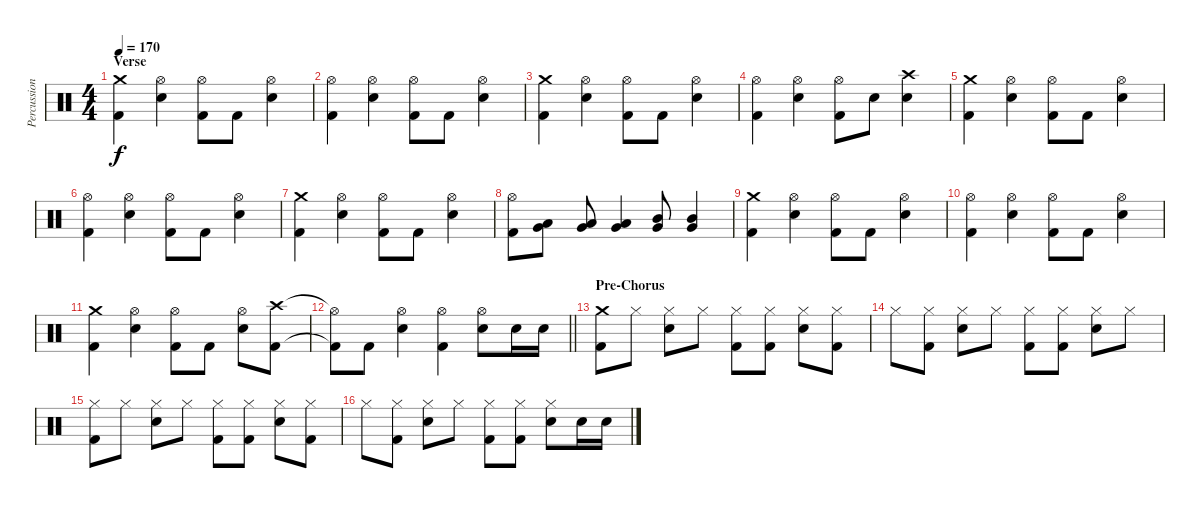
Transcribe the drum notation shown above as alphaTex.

\track ("Percussions" "Percussion") {instrument percussion}
\staff {score}
\articulation defaults
\ts (4 4)
\section ("" "Verse")
\tempo 170
\clef neutral
\ks c
("Crash medium (hit)" "Kick (hit) 2").4{dy f} ("Hi-Hat (open)" "Electric Snare (hit)").4 ("Hi-Hat (open)" "Kick (hit) 2").8 "Kick (hit) 2".8 ("Hi-Hat (open)" "Electric Snare (hit)").4 |
("Hi-Hat (open)" "Kick (hit) 2").4 ("Hi-Hat (open)" "Electric Snare (hit)").4 ("Hi-Hat (open)" "Kick (hit) 2").8 "Kick (hit) 2".8 ("Hi-Hat (open)" "Electric Snare (hit)").4 |
("Crash medium (hit)" "Kick (hit) 2").4 ("Hi-Hat (open)" "Electric Snare (hit)").4 ("Hi-Hat (open)" "Kick (hit) 2").8 "Kick (hit) 2".8 ("Hi-Hat (open)" "Electric Snare (hit)").4 |
("Hi-Hat (open)" "Kick (hit) 2").4 ("Hi-Hat (open)" "Electric Snare (hit)").4 ("Hi-Hat (open)" "Kick (hit) 2").8 "Electric Snare (hit)".8 ("Crash high (hit)" "Electric Snare (hit)").4 |
("Crash medium (hit)" "Kick (hit) 2").4 ("Hi-Hat (open)" "Electric Snare (hit)").4 ("Hi-Hat (open)" "Kick (hit) 2").8 "Kick (hit) 2".8 ("Hi-Hat (open)" "Electric Snare (hit)").4 |
("Hi-Hat (open)" "Kick (hit) 2").4 ("Hi-Hat (open)" "Electric Snare (hit)").4 ("Hi-Hat (open)" "Kick (hit) 2").8 "Kick (hit) 2".8 ("Hi-Hat (open)" "Electric Snare (hit)").4 |
("Crash medium (hit)" "Kick (hit) 2").4 ("Hi-Hat (open)" "Electric Snare (hit)").4 ("Hi-Hat (open)" "Kick (hit) 2").8 "Kick (hit) 2".8 ("Hi-Hat (open)" "Electric Snare (hit)").4 |
("Hi-Hat (open)" "Kick (hit) 2").8 ("Low Tom (hit)" "Very Low Tom (hit)").8 ("Low Tom (hit)" "Very Low Tom (hit)").8 ("Low Tom (hit)" "Very Low Tom (hit)").4 ("Mid Tom (hit)" "Very Low Tom (hit)").8 ("Mid Tom (hit)" "Very Low Tom (hit)").4 |
("Crash medium (hit)" "Kick (hit) 2").4 ("Hi-Hat (open)" "Electric Snare (hit)").4 ("Hi-Hat (open)" "Kick (hit) 2").8 "Kick (hit) 2".8 ("Hi-Hat (open)" "Electric Snare (hit)").4 |
("Hi-Hat (open)" "Kick (hit) 2").4 ("Hi-Hat (open)" "Electric Snare (hit)").4 ("Hi-Hat (open)" "Kick (hit) 2").8 "Kick (hit) 2".8 ("Hi-Hat (open)" "Electric Snare (hit)").4 |
("Crash medium (hit)" "Kick (hit) 2").4 ("Hi-Hat (open)" "Electric Snare (hit)").4 ("Hi-Hat (open)" "Kick (hit) 2").8 "Kick (hit) 2".8 ("Hi-Hat (open)" "Electric Snare (hit)").8 ("Crash high (hit)" "Kick (hit) 2").8 |
\barLineRight lightlight
("Hi-Hat (open)"{t} "Kick (hit) 2"{t}).8 "Kick (hit) 2".8 ("Hi-Hat (open)" "Electric Snare (hit)").4 ("Hi-Hat (open)" "Kick (hit) 2").4 ("Hi-Hat (open)" "Electric Snare (hit)").8 "Electric Snare (hit)".16 "Electric Snare (hit)".16 |
\section ("" "Pre-Chorus")
("Crash medium (hit)" "Kick (hit) 2").8 "Hi-Hat (closed)".8 ("Hi-Hat (closed)" "Electric Snare (hit)").8 "Hi-Hat (closed)".8 ("Hi-Hat (closed)" "Kick (hit) 2").8 ("Hi-Hat (closed)" "Kick (hit) 2").8 ("Hi-Hat (closed)" "Electric Snare (hit)").8 ("Hi-Hat (closed)" "Kick (hit) 2").8 |
"Hi-Hat (closed)".8 ("Hi-Hat (closed)" "Kick (hit) 2").8 ("Hi-Hat (closed)" "Electric Snare (hit)").8 "Hi-Hat (closed)".8 ("Hi-Hat (closed)" "Kick (hit) 2").8 ("Hi-Hat (closed)" "Kick (hit) 2").8 ("Hi-Hat (closed)" "Electric Snare (hit)").8 "Hi-Hat (closed)".8 |
("Hi-Hat (closed)" "Kick (hit) 2").8 "Hi-Hat (closed)".8 ("Hi-Hat (closed)" "Electric Snare (hit)").8 "Hi-Hat (closed)".8 ("Hi-Hat (closed)" "Kick (hit) 2").8 ("Hi-Hat (closed)" "Kick (hit) 2").8 ("Hi-Hat (closed)" "Electric Snare (hit)").8 ("Hi-Hat (closed)" "Kick (hit) 2").8 |
"Hi-Hat (closed)".8 ("Hi-Hat (closed)" "Kick (hit) 2").8 ("Hi-Hat (closed)" "Electric Snare (hit)").8 "Hi-Hat (closed)".8 ("Hi-Hat (closed)" "Kick (hit) 2").8 ("Hi-Hat (closed)" "Kick (hit) 2").8 ("Hi-Hat (closed)" "Electric Snare (hit)").8 "Electric Snare (hit)".16 "Electric Snare (hit)".16
